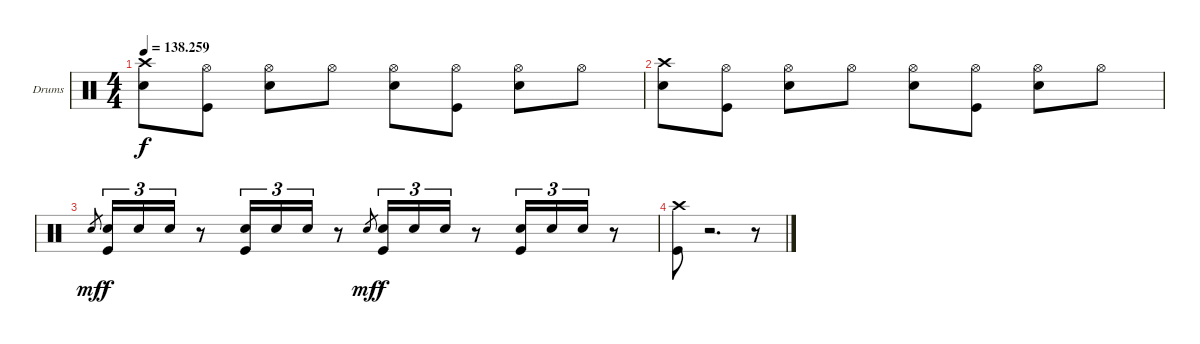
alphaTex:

\bracketExtendMode groupsimilarinstruments
\firstSystemTrackNameOrientation horizontal
\otherSystemsTrackNameOrientation horizontal
\track ("Drumkit" "Drums") {instrument percussion}
\staff {score}
\articulation defaults
\ts (4 4)
\tempo
138.259
\accidentals auto
\clef neutral
\ottava regular
\simile none
\ks c
("Crash high (hit)" "Snare (hit) 2").8{dy f} ("Hi-Hat (open)" "Kick (hit)").8 ("Hi-Hat (open)" "Snare (hit) 2").8 "Hi-Hat (open)".8 ("Hi-Hat (open)" "Snare (hit) 2").8 ("Hi-Hat (open)" "Kick (hit)").8 ("Hi-Hat (open)" "Snare (hit) 2").8 "Hi-Hat (open)".8 |
("Crash high (hit)" "Snare (hit) 2").8 ("Hi-Hat (open)" "Kick (hit)").8 ("Hi-Hat (open)" "Snare (hit) 2").8 "Hi-Hat (open)".8 ("Hi-Hat (open)" "Snare (hit) 2").8 ("Hi-Hat (open)" "Kick (hit)").8 ("Hi-Hat (open)" "Snare (hit) 2").8 "Hi-Hat (open)".8 |
"Snare (hit) 2".8{gr dy mf} ("Snare (hit) 2" "Kick (hit)").16{tu (3 2) dy f} "Snare (hit) 2".16{tu (3 2)} "Snare (hit) 2".16{tu (3 2)} r.8 ("Snare (hit) 2" "Kick (hit)").16{tu (3 2)} "Snare (hit) 2".16{tu (3 2)} "Snare (hit) 2".16{tu (3 2)} r.8 "Snare (hit) 2".8{gr dy mf} ("Snare (hit) 2" "Kick (hit)").16{tu (3 2) dy f} "Snare (hit) 2".16{tu (3 2)} "Snare (hit) 2".16{tu (3 2)} r.8 ("Snare (hit) 2" "Kick (hit)").16{tu (3 2)} "Snare (hit) 2".16{tu (3 2)} "Snare (hit) 2".16{tu (3 2)} r.8 |
("Crash high (hit)" "Kick (hit)").8 r.2{d} r.8
